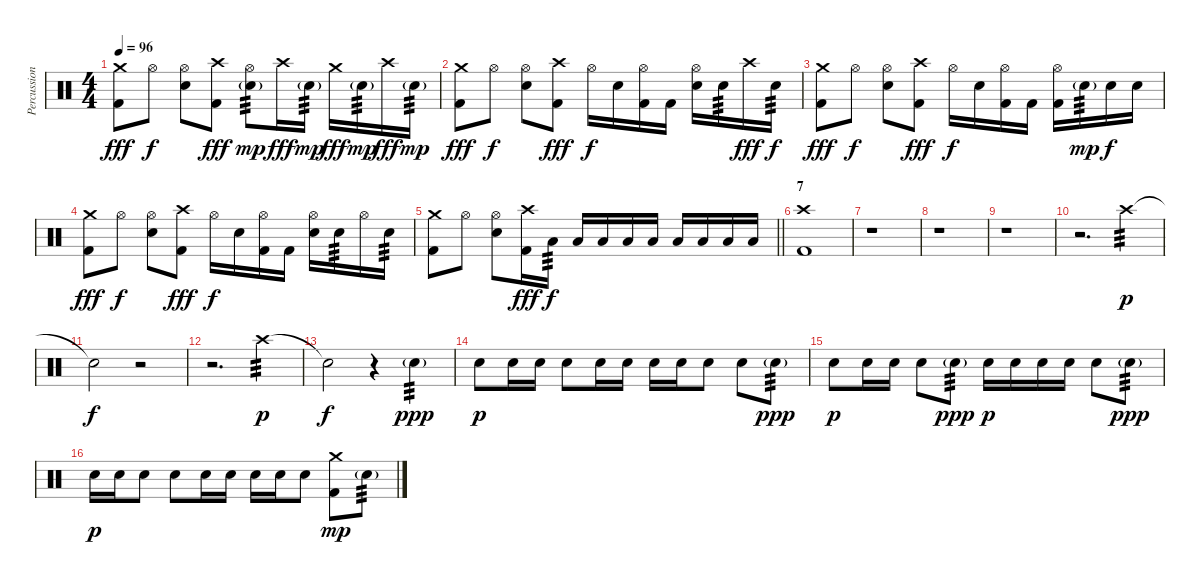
\track ("Percussion" "Percussion") {instrument percussion}
\staff {score}
\articulation defaults
\ts (4 4)
\tempo 96
\clef neutral
\ks c
("Crash medium (hit)" "Kick (hit) 2").8{dy fff} "Hi-Hat (open)".8{dy f} ("Hi-Hat (open)" "Snare (hit) 2").8 ("Crash high (hit)" "Kick (hit) 2").8{dy fff} ("Hi-Hat (open)" "Snare (hit) 2"{g}).8{tp 3 dy mp} "Crash high (hit)".16{dy fff} "Snare (hit) 2"{g}.16{tp 3 dy mp} "Crash medium (hit)".16{dy fff} "Snare (hit) 2"{g}.16{tp 3 dy mp} "Crash high (hit)".16{dy fff} "Snare (hit) 2"{g}.16{tp 3 dy mp} |
("Crash medium (hit)" "Kick (hit) 2").8{dy fff} "Hi-Hat (open)".8{dy f} ("Hi-Hat (open)" "Snare (hit) 2").8 ("Crash high (hit)" "Kick (hit) 2").8{dy fff} "Hi-Hat (open)".16{dy f} "Snare (hit) 2".16 ("Hi-Hat (open)" "Kick (hit) 2").16 "Kick (hit) 2".16 ("Hi-Hat (open)" "Snare (hit) 2").16 "Snare (hit) 2".16{tp 3} "Crash high (hit)".16{dy fff} "Snare (hit) 2".16{tp 3 dy f} |
("Crash medium (hit)" "Kick (hit) 2").8{dy fff} "Hi-Hat (open)".8{dy f} ("Hi-Hat (open)" "Snare (hit) 2").8 ("Crash high (hit)" "Kick (hit) 2").8{dy fff} "Hi-Hat (open)".16{dy f} "Snare (hit) 2".16 ("Hi-Hat (open)" "Kick (hit) 2").16 "Kick (hit) 2".16 ("Hi-Hat (open)" "Kick (hit) 2").16 "Snare (hit) 2"{g}.16{tp 3 dy mp} "Snare (hit) 2".16{dy f} "Snare (hit) 2".16 |
("Crash medium (hit)" "Kick (hit) 2").8{dy fff} "Hi-Hat (open)".8{dy f} ("Hi-Hat (open)" "Snare (hit) 2").8 ("Crash high (hit)" "Kick (hit) 2").8{dy fff} "Hi-Hat (open)".16{dy f} "Snare (hit) 2".16 ("Hi-Hat (open)" "Kick (hit) 2").16 "Kick (hit) 2".16 ("Hi-Hat (open)" "Snare (hit) 2").16 "Snare (hit) 2".16{tp 3} "Hi-Hat (open)".16 "Snare (hit) 2".16{tp 3} |
\barLineRight lightlight
("Crash medium (hit)" "Kick (hit) 2").8 "Hi-Hat (open)".8 ("Hi-Hat (open)" "Snare (hit) 2").8 ("Crash high (hit)" "Kick (hit) 2").16{dy fff} "Low Floor Tom (hit)".16{tp 3 dy f} "Low Tom (hit)".16 "Low Floor Tom (hit)".16 "Low Floor Tom (hit)".16 "Low Tom (hit)".16 "Low Floor Tom (hit)".16 "Low Floor Tom (hit)".16 "Low Tom (hit)".16 "Low Floor Tom (hit)".16 |
\section ("" "7")
("Crash high (hit)" "Kick (hit) 2").1 |
r.1 |
r.1 |
r.1 |
r.2{d volume 0} "Crash high (hit)".4{tp 3 dy p volume 11} |
"Snare (hit)"{t}.2{dy f} r.2{volume 0} |
r.2{d} "Crash high (hit)".4{tp 3 dy p volume 13} |
"Snare (hit)"{t}.2{dy f} r.4 "Snare (hit) 2"{g}.4{tp 3 dy ppp} |
"Snare (hit) 2".8{dy p} "Snare (hit) 2".16 "Snare (hit) 2".16 "Snare (hit) 2".8 "Snare (hit) 2".16 "Snare (hit) 2".16 "Snare (hit) 2".16 "Snare (hit) 2".16 "Snare (hit) 2".8 "Snare (hit) 2".8 "Snare (hit) 2"{g}.8{tp 3 dy ppp} |
"Snare (hit) 2".8{dy p} "Snare (hit) 2".16 "Snare (hit) 2".16 "Snare (hit) 2".8 "Snare (hit) 2"{g}.8{tp 3 dy ppp} "Snare (hit) 2".16{dy p} "Snare (hit) 2".16 "Snare (hit) 2".16 "Snare (hit) 2".16 "Snare (hit) 2".8 "Snare (hit) 2"{g}.8{tp 3 dy ppp} |
"Snare (hit) 2".16{dy p} "Snare (hit) 2".16 "Snare (hit) 2".8 "Snare (hit) 2".8 "Snare (hit) 2".16 "Snare (hit) 2".16 "Snare (hit) 2".16 "Snare (hit) 2".16 "Snare (hit) 2".8 ("Crash medium (hit)" "Kick (hit) 2").8{dy mp} "Snare (hit) 2"{g}.8{tp 3}
